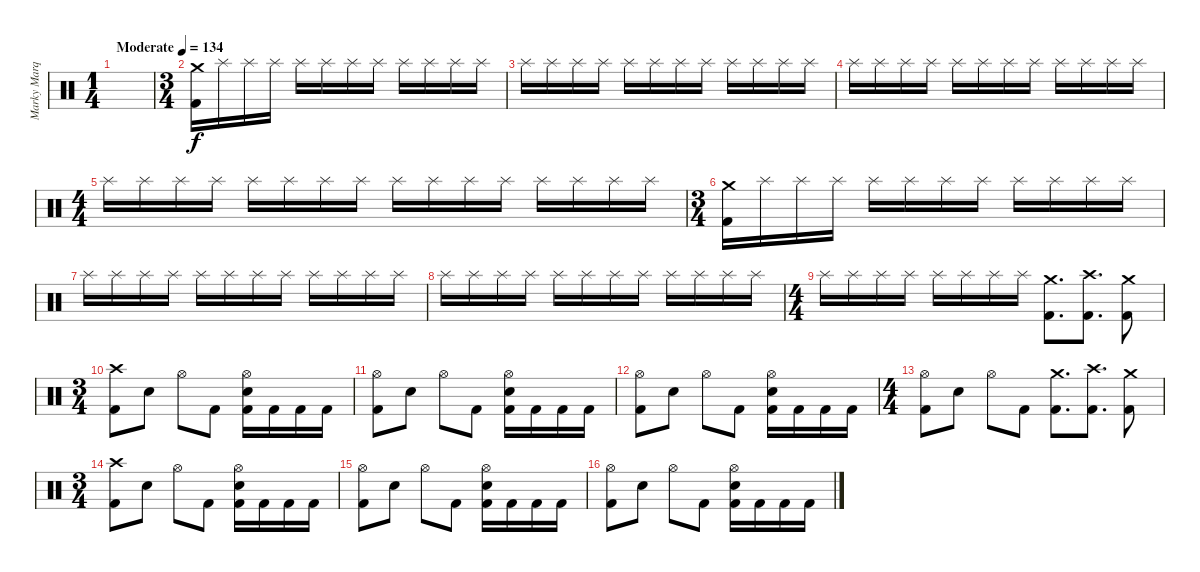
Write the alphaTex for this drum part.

\track ("Marky Marquis" "Marky Marq") {instrument percussion}
\staff {score}
\articulation defaults
\ts (1 4)
\tempo (134 "Moderate")
\clef neutral
\ks c
|
\ts (3 4)
("Crash medium (hit)" "Kick (hit) 2").16 "Splash (hit)".16 "Splash (hit)".16 "Splash (hit)".16 "Splash (hit)".16 "Splash (hit)".16 "Splash (hit)".16 "Splash (hit)".16 "Splash (hit)".16 "Splash (hit)".16 "Splash (hit)".16 "Splash (hit)".16 |
"Splash (hit)".16 "Splash (hit)".16 "Splash (hit)".16 "Splash (hit)".16 "Splash (hit)".16 "Splash (hit)".16 "Splash (hit)".16 "Splash (hit)".16 "Splash (hit)".16 "Splash (hit)".16 "Splash (hit)".16 "Splash (hit)".16 |
"Splash (hit)".16 "Splash (hit)".16 "Splash (hit)".16 "Splash (hit)".16 "Splash (hit)".16 "Splash (hit)".16 "Splash (hit)".16 "Splash (hit)".16 "Splash (hit)".16 "Splash (hit)".16 "Splash (hit)".16 "Splash (hit)".16 |
\ts (4 4)
"Splash (hit)".16 "Splash (hit)".16 "Splash (hit)".16 "Splash (hit)".16 "Splash (hit)".16 "Splash (hit)".16 "Splash (hit)".16 "Splash (hit)".16 "Splash (hit)".16 "Splash (hit)".16 "Splash (hit)".16 "Splash (hit)".16 "Splash (hit)".16 "Splash (hit)".16 "Splash (hit)".16 "Splash (hit)".16 |
\ts (3 4)
("Crash medium (hit)" "Kick (hit) 2").16 "Splash (hit)".16 "Splash (hit)".16 "Splash (hit)".16 "Splash (hit)".16 "Splash (hit)".16 "Splash (hit)".16 "Splash (hit)".16 "Splash (hit)".16 "Splash (hit)".16 "Splash (hit)".16 "Splash (hit)".16 |
"Splash (hit)".16 "Splash (hit)".16 "Splash (hit)".16 "Splash (hit)".16 "Splash (hit)".16 "Splash (hit)".16 "Splash (hit)".16 "Splash (hit)".16 "Splash (hit)".16 "Splash (hit)".16 "Splash (hit)".16 "Splash (hit)".16 |
"Splash (hit)".16 "Splash (hit)".16 "Splash (hit)".16 "Splash (hit)".16 "Splash (hit)".16 "Splash (hit)".16 "Splash (hit)".16 "Splash (hit)".16 "Splash (hit)".16 "Splash (hit)".16 "Splash (hit)".16 "Splash (hit)".16 |
\ts (4 4)
"Splash (hit)".16 "Splash (hit)".16 "Splash (hit)".16 "Splash (hit)".16 "Splash (hit)".16 "Splash (hit)".16 "Splash (hit)".16 "Splash (hit)".16 ("Crash medium (hit)" "Kick (hit) 2").8{d} ("Crash high (hit)" "Kick (hit) 2").8{d} ("Crash medium (hit)" "Kick (hit) 2").8 |
\ts (3 4)
("Crash high (hit)" "Kick (hit) 2").8 "Electric Snare (hit)".8 "Hi-Hat (open)".8 "Kick (hit) 2".8 ("Hi-Hat (open)" "Electric Snare (hit)" "Kick (hit) 2").16 "Kick (hit) 2".16 "Kick (hit) 2".16 "Kick (hit) 2".16 |
("Hi-Hat (open)" "Kick (hit) 2").8 "Electric Snare (hit)".8 "Hi-Hat (open)".8 "Kick (hit) 2".8 ("Hi-Hat (open)" "Electric Snare (hit)" "Kick (hit) 2").16 "Kick (hit) 2".16 "Kick (hit) 2".16 "Kick (hit) 2".16 |
("Hi-Hat (open)" "Kick (hit) 2").8 "Electric Snare (hit)".8 "Hi-Hat (open)".8 "Kick (hit) 2".8 ("Hi-Hat (open)" "Electric Snare (hit)" "Kick (hit) 2").16 "Kick (hit) 2".16 "Kick (hit) 2".16 "Kick (hit) 2".16 |
\ts (4 4)
("Hi-Hat (open)" "Kick (hit) 2").8 "Electric Snare (hit)".8 "Hi-Hat (open)".8 "Kick (hit) 2".8 ("Crash medium (hit)" "Kick (hit) 2").8{d} ("Crash high (hit)" "Kick (hit) 2").8{d} ("Crash medium (hit)" "Kick (hit) 2").8 |
\ts (3 4)
("Crash high (hit)" "Kick (hit) 2").8 "Electric Snare (hit)".8 "Hi-Hat (open)".8 "Kick (hit) 2".8 ("Hi-Hat (open)" "Electric Snare (hit)" "Kick (hit) 2").16 "Kick (hit) 2".16 "Kick (hit) 2".16 "Kick (hit) 2".16 |
("Hi-Hat (open)" "Kick (hit) 2").8 "Electric Snare (hit)".8 "Hi-Hat (open)".8 "Kick (hit) 2".8 ("Hi-Hat (open)" "Electric Snare (hit)" "Kick (hit) 2").16 "Kick (hit) 2".16 "Kick (hit) 2".16 "Kick (hit) 2".16 |
("Hi-Hat (open)" "Kick (hit) 2").8 "Electric Snare (hit)".8 "Hi-Hat (open)".8 "Kick (hit) 2".8 ("Hi-Hat (open)" "Electric Snare (hit)" "Kick (hit) 2").16 "Kick (hit) 2".16 "Kick (hit) 2".16 "Kick (hit) 2".16
